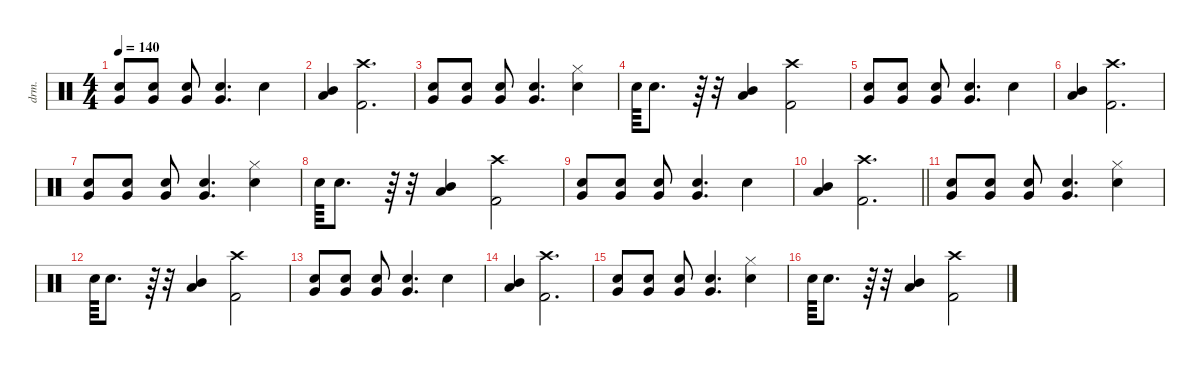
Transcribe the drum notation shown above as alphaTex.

\defaultSystemsLayout 4
\hideDynamics
\bracketExtendMode nobrackets
\otherSystemsTrackNameOrientation horizontal
\track ("Drums" "drm.") {defaultSystemsLayout 4 instrument percussion}
\staff {score}
\articulation defaults
\ts (4 4)
\tempo 140
\clef neutral
\ks c
("Very Low Tom (hit)" "Snare (hit) 2").8{dy f beam Up} ("Very Low Tom (hit)" "Snare (hit) 2").8{beam Up} ("Very Low Tom (hit)" "Snare (hit) 2").8{beam Up} ("Very Low Tom (hit)" "Snare (hit) 2").4{d beam Up} "Snare (hit) 2".4{beam Down} |
("Mid Tom (hit)" "Low Tom (hit)").4{beam Up} ("Crash high (hit)" "Kick (hit) 2").2{d beam Down} |
("Very Low Tom (hit)" "Snare (hit) 2").8{beam Up} ("Very Low Tom (hit)" "Snare (hit) 2").8{beam Up} ("Very Low Tom (hit)" "Snare (hit) 2").8{beam Up} ("Very Low Tom (hit)" "Snare (hit) 2").4{d beam Up} ("Hi-Hat (closed)" "Snare (hit) 2").4{beam Down} |
"Snare (hit) 2".64{dy fff beam Down} "Snare (hit) 2".8{d dy ff beam Down} r.64{beam Down} r.32{beam Down} ("Mid Tom (hit)" "Low Tom (hit)").4{dy f beam Up} ("Crash high (hit)" "Kick (hit) 2").2{beam Down} |
("Very Low Tom (hit)" "Snare (hit) 2").8{beam Up} ("Very Low Tom (hit)" "Snare (hit) 2").8{beam Up} ("Very Low Tom (hit)" "Snare (hit) 2").8{beam Up} ("Very Low Tom (hit)" "Snare (hit) 2").4{d beam Up} "Snare (hit) 2".4{beam Down} |
("Mid Tom (hit)" "Low Tom (hit)").4{beam Up} ("Crash high (hit)" "Kick (hit) 2").2{d beam Down} |
("Very Low Tom (hit)" "Snare (hit) 2").8{beam Up} ("Very Low Tom (hit)" "Snare (hit) 2").8{beam Up} ("Very Low Tom (hit)" "Snare (hit) 2").8{beam Up} ("Very Low Tom (hit)" "Snare (hit) 2").4{d beam Up} ("Hi-Hat (closed)" "Snare (hit) 2").4{beam Down} |
"Snare (hit) 2".64{dy fff beam Down} "Snare (hit) 2".8{d dy ff beam Down} r.64{beam Down} r.32{beam Down} ("Mid Tom (hit)" "Low Tom (hit)").4{dy f beam Up} ("Crash high (hit)" "Kick (hit) 2").2{beam Down} |
("Very Low Tom (hit)" "Snare (hit) 2").8{beam Up} ("Very Low Tom (hit)" "Snare (hit) 2").8{beam Up} ("Very Low Tom (hit)" "Snare (hit) 2").8{beam Up} ("Very Low Tom (hit)" "Snare (hit) 2").4{d beam Up} "Snare (hit) 2".4{beam Down} |
\barLineRight lightlight
("Mid Tom (hit)" "Low Tom (hit)").4{beam Up} ("Crash high (hit)" "Kick (hit) 2").2{d beam Down} |
("Very Low Tom (hit)" "Snare (hit) 2").8{beam Up} ("Very Low Tom (hit)" "Snare (hit) 2").8{beam Up} ("Very Low Tom (hit)" "Snare (hit) 2").8{beam Up} ("Very Low Tom (hit)" "Snare (hit) 2").4{d beam Up} ("Hi-Hat (closed)" "Snare (hit) 2").4{beam Down} |
"Snare (hit) 2".64{dy fff beam Down} "Snare (hit) 2".8{d dy ff beam Down} r.64{beam Down} r.32{beam Down} ("Mid Tom (hit)" "Low Tom (hit)").4{dy f beam Up} ("Crash high (hit)" "Kick (hit) 2").2{beam Down} |
("Very Low Tom (hit)" "Snare (hit) 2").8{beam Up} ("Very Low Tom (hit)" "Snare (hit) 2").8{beam Up} ("Very Low Tom (hit)" "Snare (hit) 2").8{beam Up} ("Very Low Tom (hit)" "Snare (hit) 2").4{d beam Up} "Snare (hit) 2".4{beam Down} |
("Mid Tom (hit)" "Low Tom (hit)").4{beam Up} ("Crash high (hit)" "Kick (hit) 2").2{d beam Down} |
("Very Low Tom (hit)" "Snare (hit) 2").8{beam Up} ("Very Low Tom (hit)" "Snare (hit) 2").8{beam Up} ("Very Low Tom (hit)" "Snare (hit) 2").8{beam Up} ("Very Low Tom (hit)" "Snare (hit) 2").4{d beam Up} ("Hi-Hat (closed)" "Snare (hit) 2").4{beam Down} |
"Snare (hit) 2".64{dy fff beam Down} "Snare (hit) 2".8{d dy ff beam Down} r.64{beam Down} r.32{beam Down} ("Mid Tom (hit)" "Low Tom (hit)").4{dy f beam Up} ("Crash high (hit)" "Kick (hit) 2").2{beam Down}
